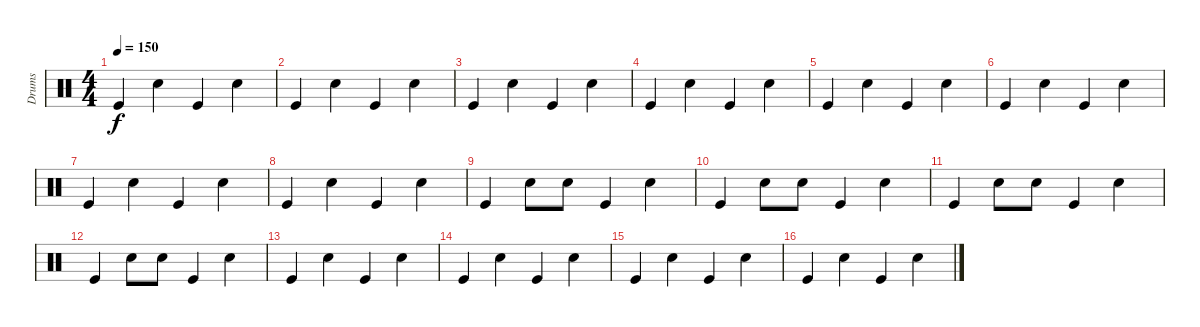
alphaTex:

\track ("Drums" "Drums") {instrument percussion}
\staff {score}
\articulation defaults
\ts (4 4)
\tempo 150
\clef neutral
\ks c "Kick (hit)".4{dy f} "Snare (hit) 2".4 "Kick (hit)".4 "Snare (hit) 2".4
|
"Kick (hit)".4 "Snare (hit) 2".4 "Kick (hit)".4 "Snare (hit) 2".4 |
"Kick (hit)".4 "Snare (hit) 2".4 "Kick (hit)".4 "Snare (hit) 2".4 |
"Kick (hit)".4 "Snare (hit) 2".4 "Kick (hit)".4 "Snare (hit) 2".4 |
"Kick (hit)".4 "Snare (hit) 2".4 "Kick (hit)".4 "Snare (hit) 2".4 |
"Kick (hit)".4 "Snare (hit) 2".4 "Kick (hit)".4 "Snare (hit) 2".4 |
"Kick (hit)".4 "Snare (hit) 2".4 "Kick (hit)".4 "Snare (hit) 2".4 |
"Kick (hit)".4 "Snare (hit) 2".4 "Kick (hit)".4 "Snare (hit) 2".4 |
"Kick (hit)".4 "Snare (hit) 2".8 "Snare (hit) 2".8 "Kick (hit)".4 "Snare (hit) 2".4 |
"Kick (hit)".4 "Snare (hit) 2".8 "Snare (hit) 2".8 "Kick (hit)".4 "Snare (hit) 2".4 |
"Kick (hit)".4 "Snare (hit) 2".8 "Snare (hit) 2".8 "Kick (hit)".4 "Snare (hit) 2".4 |
"Kick (hit)".4 "Snare (hit) 2".8 "Snare (hit) 2".8 "Kick (hit)".4 "Snare (hit) 2".4 |
"Kick (hit)".4 "Snare (hit) 2".4 "Kick (hit)".4 "Snare (hit) 2".4 |
"Kick (hit)".4 "Snare (hit) 2".4 "Kick (hit)".4 "Snare (hit) 2".4 |
"Kick (hit)".4 "Snare (hit) 2".4 "Kick (hit)".4 "Snare (hit) 2".4 |
"Kick (hit)".4 "Snare (hit) 2".4 "Kick (hit)".4 "Snare (hit) 2".4
